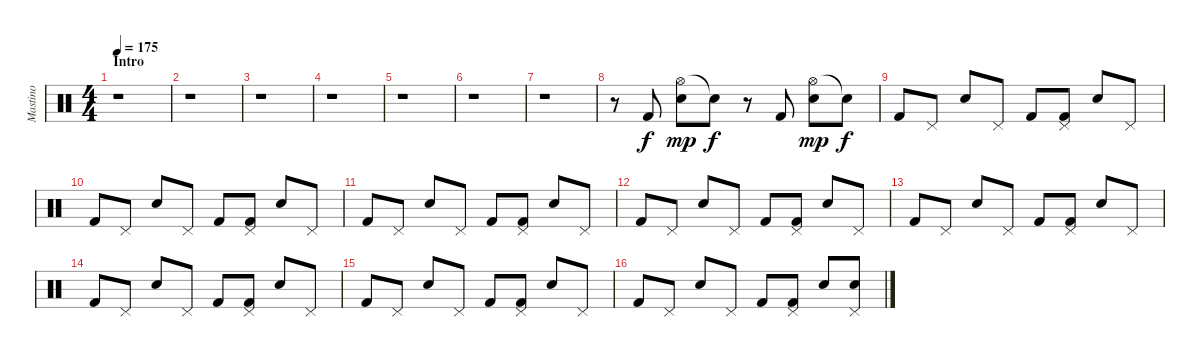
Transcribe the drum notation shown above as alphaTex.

\track ("Mastino" "Mastino") {instrument percussion}
\staff {score}
\articulation defaults
\ts (4 4)
\section ("" "Intro")
\tempo 175
\clef neutral
\ks c
r.1{dy f} |
r.1 |
r.1 |
r.1 |
r.1 |
r.1 |
r.1 |
r.8 "Kick (hit) 2".8 ("Hi-Hat (open)" "Electric Snare (hit)").8{dy mp} "Snare (hit)"{t}.8{dy f} r.8 "Kick (hit) 2".8 ("Hi-Hat (open)" "Electric Snare (hit)").8{dy mp} "Snare (hit)"{t}.8{dy f} |
"Kick (hit) 2".8 "Pedal Hi-Hat (hit)".8 "Electric Snare (hit)".8 "Pedal Hi-Hat (hit)".8 "Kick (hit) 2".8 ("Pedal Hi-Hat (hit)" "Kick (hit) 2").8 "Electric Snare (hit)".8 "Pedal Hi-Hat (hit)".8 |
"Kick (hit) 2".8 "Pedal Hi-Hat (hit)".8 "Electric Snare (hit)".8 "Pedal Hi-Hat (hit)".8 "Kick (hit) 2".8 ("Pedal Hi-Hat (hit)" "Kick (hit) 2").8 "Electric Snare (hit)".8 "Pedal Hi-Hat (hit)".8 |
"Kick (hit) 2".8 "Pedal Hi-Hat (hit)".8 "Electric Snare (hit)".8 "Pedal Hi-Hat (hit)".8 "Kick (hit) 2".8 ("Pedal Hi-Hat (hit)" "Kick (hit) 2").8 "Electric Snare (hit)".8 "Pedal Hi-Hat (hit)".8 |
"Kick (hit) 2".8 "Pedal Hi-Hat (hit)".8 "Electric Snare (hit)".8 "Pedal Hi-Hat (hit)".8 "Kick (hit) 2".8 ("Pedal Hi-Hat (hit)" "Kick (hit) 2").8 "Electric Snare (hit)".8 "Pedal Hi-Hat (hit)".8 |
"Kick (hit) 2".8 "Pedal Hi-Hat (hit)".8 "Electric Snare (hit)".8 "Pedal Hi-Hat (hit)".8 "Kick (hit) 2".8 ("Pedal Hi-Hat (hit)" "Kick (hit) 2").8 "Electric Snare (hit)".8 "Pedal Hi-Hat (hit)".8 |
"Kick (hit) 2".8 "Pedal Hi-Hat (hit)".8 "Electric Snare (hit)".8 "Pedal Hi-Hat (hit)".8 "Kick (hit) 2".8 ("Pedal Hi-Hat (hit)" "Kick (hit) 2").8 "Electric Snare (hit)".8 "Pedal Hi-Hat (hit)".8 |
"Kick (hit) 2".8 "Pedal Hi-Hat (hit)".8 "Electric Snare (hit)".8 "Pedal Hi-Hat (hit)".8 "Kick (hit) 2".8 ("Pedal Hi-Hat (hit)" "Kick (hit) 2").8 "Electric Snare (hit)".8 "Pedal Hi-Hat (hit)".8 |
"Kick (hit) 2".8 "Pedal Hi-Hat (hit)".8 "Electric Snare (hit)".8 "Pedal Hi-Hat (hit)".8 "Kick (hit) 2".8 ("Pedal Hi-Hat (hit)" "Kick (hit) 2").8 "Electric Snare (hit)".8 ("Pedal Hi-Hat (hit)" "Electric Snare (hit)").8
